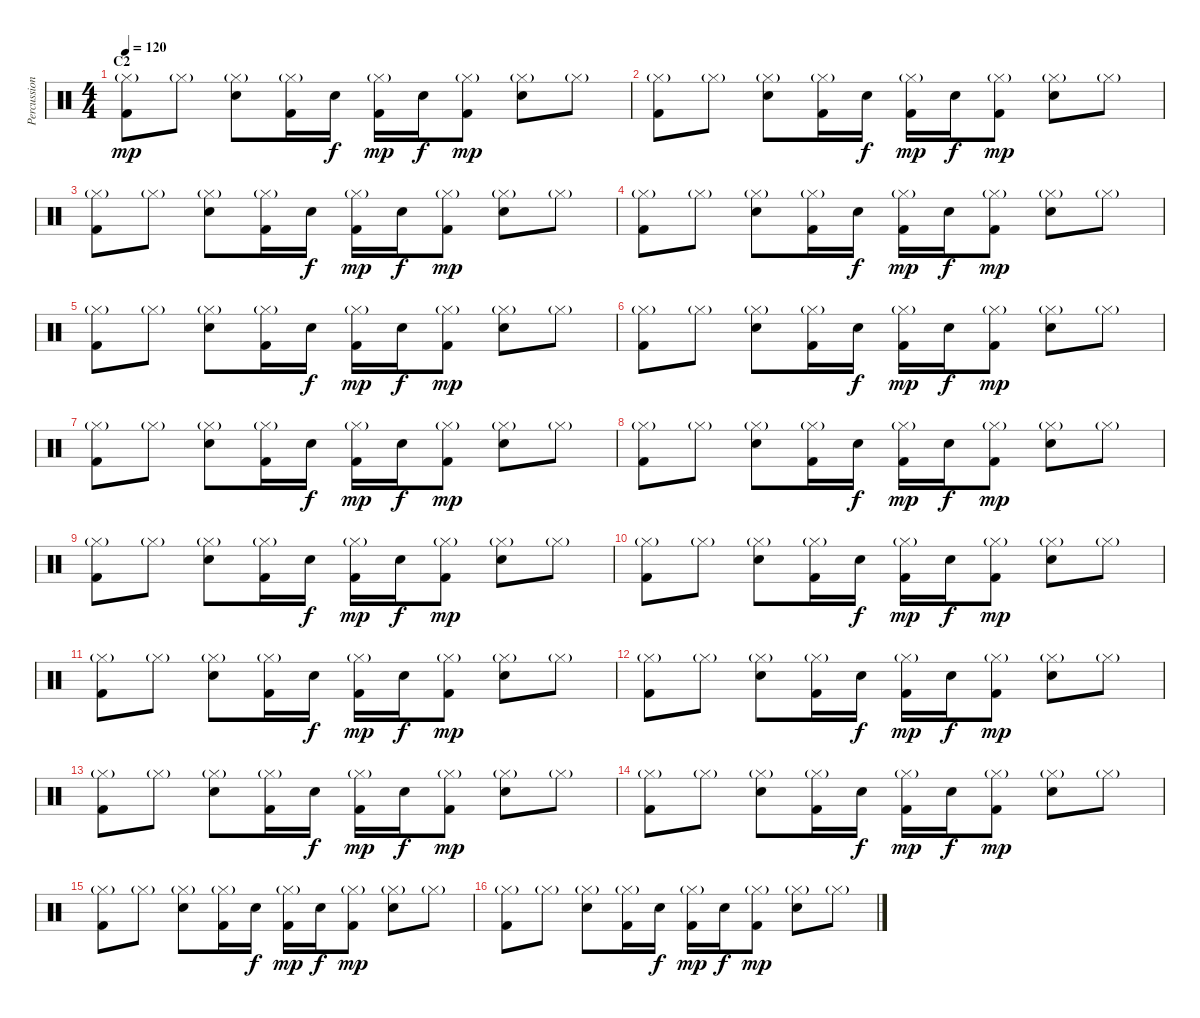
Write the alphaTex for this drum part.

\track ("Percussions" "Percussion") {instrument percussion}
\staff {score}
\articulation defaults
\ts (4 4)
\section ("" "C2")
\tempo 120
\clef neutral
\ks c
("Hi-Hat (closed)"{g} "Kick (hit) 2").8{dy mp} "Hi-Hat (closed)"{g}.8 ("Hi-Hat (closed)"{g} "Snare (hit) 2").8 ("Hi-Hat (closed)"{g} "Kick (hit) 2").16 "Snare (hit) 2".16{dy f} ("Hi-Hat (closed)"{g} "Kick (hit) 2").16{dy mp} "Snare (hit) 2".16{dy f} ("Hi-Hat (closed)"{g} "Kick (hit) 2").8{dy mp} ("Hi-Hat (closed)"{g} "Snare (hit) 2").8 "Hi-Hat (closed)"{g}.8 |
("Hi-Hat (closed)"{g} "Kick (hit) 2").8 "Hi-Hat (closed)"{g}.8 ("Hi-Hat (closed)"{g} "Snare (hit) 2").8 ("Hi-Hat (closed)"{g} "Kick (hit) 2").16 "Snare (hit) 2".16{dy f} ("Hi-Hat (closed)"{g} "Kick (hit) 2").16{dy mp} "Snare (hit) 2".16{dy f} ("Hi-Hat (closed)"{g} "Kick (hit) 2").8{dy mp} ("Hi-Hat (closed)"{g} "Snare (hit) 2").8 "Hi-Hat (closed)"{g}.8 |
("Hi-Hat (closed)"{g} "Kick (hit) 2").8 "Hi-Hat (closed)"{g}.8 ("Hi-Hat (closed)"{g} "Snare (hit) 2").8 ("Hi-Hat (closed)"{g} "Kick (hit) 2").16 "Snare (hit) 2".16{dy f} ("Hi-Hat (closed)"{g} "Kick (hit) 2").16{dy mp} "Snare (hit) 2".16{dy f} ("Hi-Hat (closed)"{g} "Kick (hit) 2").8{dy mp} ("Hi-Hat (closed)"{g} "Snare (hit) 2").8 "Hi-Hat (closed)"{g}.8 |
("Hi-Hat (closed)"{g} "Kick (hit) 2").8 "Hi-Hat (closed)"{g}.8 ("Hi-Hat (closed)"{g} "Snare (hit) 2").8 ("Hi-Hat (closed)"{g} "Kick (hit) 2").16 "Snare (hit) 2".16{dy f} ("Hi-Hat (closed)"{g} "Kick (hit) 2").16{dy mp} "Snare (hit) 2".16{dy f} ("Hi-Hat (closed)"{g} "Kick (hit) 2").8{dy mp} ("Hi-Hat (closed)"{g} "Snare (hit) 2").8 "Hi-Hat (closed)"{g}.8 |
("Hi-Hat (closed)"{g} "Kick (hit) 2").8 "Hi-Hat (closed)"{g}.8 ("Hi-Hat (closed)"{g} "Snare (hit) 2").8 ("Hi-Hat (closed)"{g} "Kick (hit) 2").16 "Snare (hit) 2".16{dy f} ("Hi-Hat (closed)"{g} "Kick (hit) 2").16{dy mp} "Snare (hit) 2".16{dy f} ("Hi-Hat (closed)"{g} "Kick (hit) 2").8{dy mp} ("Hi-Hat (closed)"{g} "Snare (hit) 2").8 "Hi-Hat (closed)"{g}.8 |
("Hi-Hat (closed)"{g} "Kick (hit) 2").8 "Hi-Hat (closed)"{g}.8 ("Hi-Hat (closed)"{g} "Snare (hit) 2").8 ("Hi-Hat (closed)"{g} "Kick (hit) 2").16 "Snare (hit) 2".16{dy f} ("Hi-Hat (closed)"{g} "Kick (hit) 2").16{dy mp} "Snare (hit) 2".16{dy f} ("Hi-Hat (closed)"{g} "Kick (hit) 2").8{dy mp} ("Hi-Hat (closed)"{g} "Snare (hit) 2").8 "Hi-Hat (closed)"{g}.8 |
("Hi-Hat (closed)"{g} "Kick (hit) 2").8 "Hi-Hat (closed)"{g}.8 ("Hi-Hat (closed)"{g} "Snare (hit) 2").8 ("Hi-Hat (closed)"{g} "Kick (hit) 2").16 "Snare (hit) 2".16{dy f} ("Hi-Hat (closed)"{g} "Kick (hit) 2").16{dy mp} "Snare (hit) 2".16{dy f} ("Hi-Hat (closed)"{g} "Kick (hit) 2").8{dy mp} ("Hi-Hat (closed)"{g} "Snare (hit) 2").8 "Hi-Hat (closed)"{g}.8 |
("Hi-Hat (closed)"{g} "Kick (hit) 2").8 "Hi-Hat (closed)"{g}.8 ("Hi-Hat (closed)"{g} "Snare (hit) 2").8 ("Hi-Hat (closed)"{g} "Kick (hit) 2").16 "Snare (hit) 2".16{dy f} ("Hi-Hat (closed)"{g} "Kick (hit) 2").16{dy mp} "Snare (hit) 2".16{dy f} ("Hi-Hat (closed)"{g} "Kick (hit) 2").8{dy mp} ("Hi-Hat (closed)"{g} "Snare (hit) 2").8 "Hi-Hat (closed)"{g}.8 |
("Hi-Hat (closed)"{g} "Kick (hit) 2").8 "Hi-Hat (closed)"{g}.8 ("Hi-Hat (closed)"{g} "Snare (hit) 2").8 ("Hi-Hat (closed)"{g} "Kick (hit) 2").16 "Snare (hit) 2".16{dy f} ("Hi-Hat (closed)"{g} "Kick (hit) 2").16{dy mp} "Snare (hit) 2".16{dy f} ("Hi-Hat (closed)"{g} "Kick (hit) 2").8{dy mp} ("Hi-Hat (closed)"{g} "Snare (hit) 2").8 "Hi-Hat (closed)"{g}.8 |
("Hi-Hat (closed)"{g} "Kick (hit) 2").8 "Hi-Hat (closed)"{g}.8 ("Hi-Hat (closed)"{g} "Snare (hit) 2").8 ("Hi-Hat (closed)"{g} "Kick (hit) 2").16 "Snare (hit) 2".16{dy f} ("Hi-Hat (closed)"{g} "Kick (hit) 2").16{dy mp} "Snare (hit) 2".16{dy f} ("Hi-Hat (closed)"{g} "Kick (hit) 2").8{dy mp} ("Hi-Hat (closed)"{g} "Snare (hit) 2").8 "Hi-Hat (closed)"{g}.8 |
("Hi-Hat (closed)"{g} "Kick (hit) 2").8 "Hi-Hat (closed)"{g}.8 ("Hi-Hat (closed)"{g} "Snare (hit) 2").8 ("Hi-Hat (closed)"{g} "Kick (hit) 2").16 "Snare (hit) 2".16{dy f} ("Hi-Hat (closed)"{g} "Kick (hit) 2").16{dy mp} "Snare (hit) 2".16{dy f} ("Hi-Hat (closed)"{g} "Kick (hit) 2").8{dy mp} ("Hi-Hat (closed)"{g} "Snare (hit) 2").8 "Hi-Hat (closed)"{g}.8 |
("Hi-Hat (closed)"{g} "Kick (hit) 2").8 "Hi-Hat (closed)"{g}.8 ("Hi-Hat (closed)"{g} "Snare (hit) 2").8 ("Hi-Hat (closed)"{g} "Kick (hit) 2").16 "Snare (hit) 2".16{dy f} ("Hi-Hat (closed)"{g} "Kick (hit) 2").16{dy mp} "Snare (hit) 2".16{dy f} ("Hi-Hat (closed)"{g} "Kick (hit) 2").8{dy mp} ("Hi-Hat (closed)"{g} "Snare (hit) 2").8 "Hi-Hat (closed)"{g}.8 |
("Hi-Hat (closed)"{g} "Kick (hit) 2").8 "Hi-Hat (closed)"{g}.8 ("Hi-Hat (closed)"{g} "Snare (hit) 2").8 ("Hi-Hat (closed)"{g} "Kick (hit) 2").16 "Snare (hit) 2".16{dy f} ("Hi-Hat (closed)"{g} "Kick (hit) 2").16{dy mp} "Snare (hit) 2".16{dy f} ("Hi-Hat (closed)"{g} "Kick (hit) 2").8{dy mp} ("Hi-Hat (closed)"{g} "Snare (hit) 2").8 "Hi-Hat (closed)"{g}.8 |
("Hi-Hat (closed)"{g} "Kick (hit) 2").8 "Hi-Hat (closed)"{g}.8 ("Hi-Hat (closed)"{g} "Snare (hit) 2").8 ("Hi-Hat (closed)"{g} "Kick (hit) 2").16 "Snare (hit) 2".16{dy f} ("Hi-Hat (closed)"{g} "Kick (hit) 2").16{dy mp} "Snare (hit) 2".16{dy f} ("Hi-Hat (closed)"{g} "Kick (hit) 2").8{dy mp} ("Hi-Hat (closed)"{g} "Snare (hit) 2").8 "Hi-Hat (closed)"{g}.8 |
("Hi-Hat (closed)"{g} "Kick (hit) 2").8 "Hi-Hat (closed)"{g}.8 ("Hi-Hat (closed)"{g} "Snare (hit) 2").8 ("Hi-Hat (closed)"{g} "Kick (hit) 2").16 "Snare (hit) 2".16{dy f} ("Hi-Hat (closed)"{g} "Kick (hit) 2").16{dy mp} "Snare (hit) 2".16{dy f} ("Hi-Hat (closed)"{g} "Kick (hit) 2").8{dy mp} ("Hi-Hat (closed)"{g} "Snare (hit) 2").8 "Hi-Hat (closed)"{g}.8 |
("Hi-Hat (closed)"{g} "Kick (hit) 2").8 "Hi-Hat (closed)"{g}.8 ("Hi-Hat (closed)"{g} "Snare (hit) 2").8 ("Hi-Hat (closed)"{g} "Kick (hit) 2").16 "Snare (hit) 2".16{dy f} ("Hi-Hat (closed)"{g} "Kick (hit) 2").16{dy mp} "Snare (hit) 2".16{dy f} ("Hi-Hat (closed)"{g} "Kick (hit) 2").8{dy mp} ("Hi-Hat (closed)"{g} "Snare (hit) 2").8 "Hi-Hat (closed)"{g}.8
